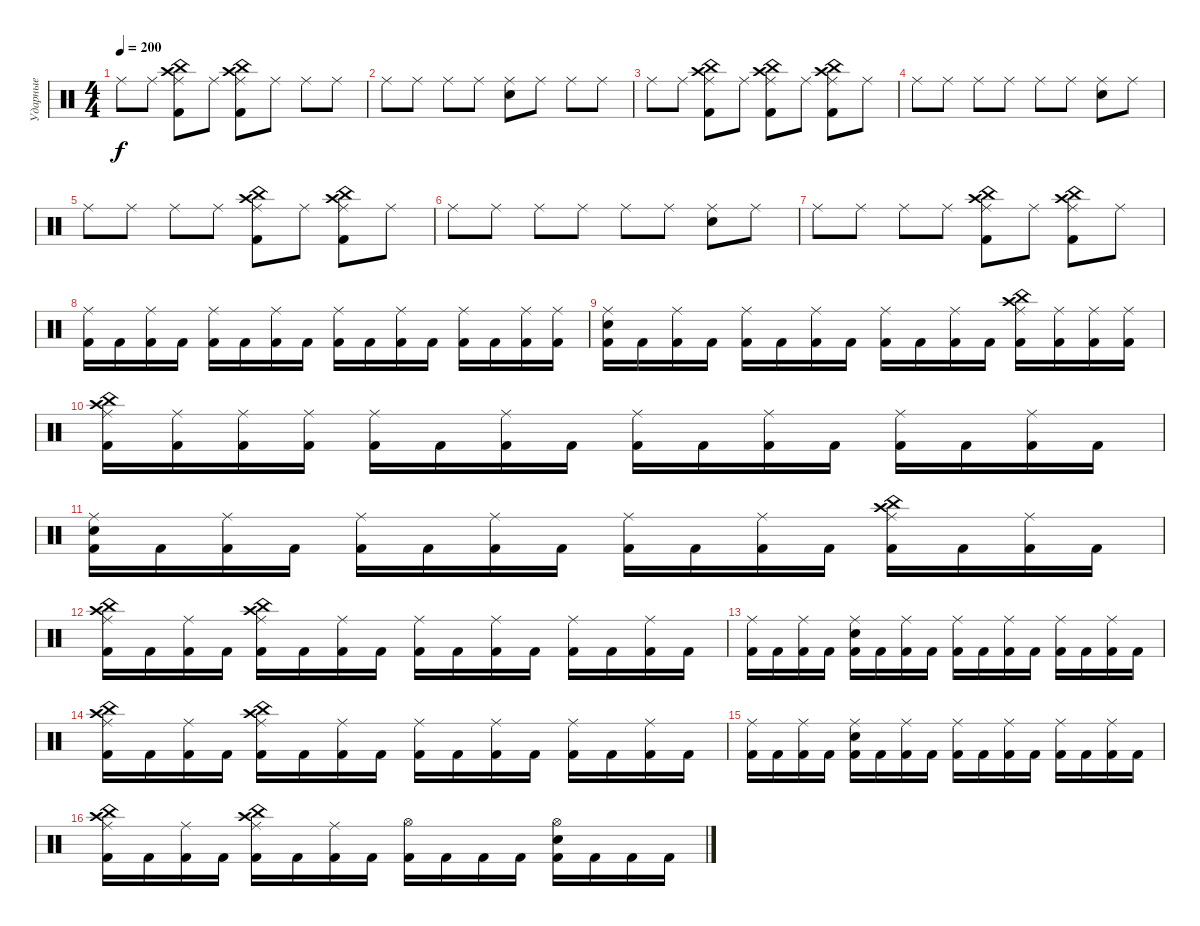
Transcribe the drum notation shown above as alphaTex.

\track ("Ударные" "Ударные") {instrument percussion}
\staff {score}
\articulation defaults
\ts (4 4)
\tempo 200
\clef neutral
\ks c "Ride (middle)".8{dy f} "Ride (middle)".8
("Ride (middle)" "Kick (hit) 2" "China (hit)" "Crash high (hit)").8 "Ride (middle)".8 ("Ride (middle)" "Kick (hit) 2" "Crash high (hit)" "China (hit)").8 "Ride (middle)".8 "Ride (middle)".8 "Ride (middle)".8 |
"Ride (middle)".8 "Ride (middle)".8 "Ride (middle)".8 "Ride (middle)".8 ("Ride (middle)" "Electric Snare (hit)").8 "Ride (middle)".8 "Ride (middle)".8 "Ride (middle)".8 |
"Ride (middle)".8 "Ride (middle)".8 ("Ride (middle)" "Kick (hit) 2" "Crash high (hit)" "China (hit)").8 "Ride (middle)".8 ("Ride (middle)" "Kick (hit) 2" "China (hit)" "Crash high (hit)").8 "Ride (middle)".8 ("Ride (middle)" "Kick (hit) 2" "Crash high (hit)" "China (hit)").8 "Ride (middle)".8 |
"Ride (middle)".8 "Ride (middle)".8 "Ride (middle)".8 "Ride (middle)".8 "Ride (middle)".8 "Ride (middle)".8 ("Ride (middle)" "Electric Snare (hit)").8 "Ride (middle)".8 |
"Ride (middle)".8 "Ride (middle)".8 "Ride (middle)".8 "Ride (middle)".8 ("Ride (middle)" "Kick (hit) 2" "Crash high (hit)" "China (hit)").8 "Ride (middle)".8 ("Ride (middle)" "China (hit)" "Crash high (hit)" "Kick (hit) 2").8 "Ride (middle)".8 |
"Ride (middle)".8 "Ride (middle)".8 "Ride (middle)".8 "Ride (middle)".8 "Ride (middle)".8 "Ride (middle)".8 ("Ride (middle)" "Electric Snare (hit)").8 "Ride (middle)".8 |
"Ride (middle)".8 "Ride (middle)".8 "Ride (middle)".8 "Ride (middle)".8 ("Ride (middle)" "Kick (hit) 2" "Crash high (hit)" "China (hit)").8 "Ride (middle)".8 ("Ride (middle)" "China (hit)" "Crash high (hit)" "Kick (hit) 2").8 "Ride (middle)".8 |
("Kick (hit) 2" "Ride (middle)").16 "Kick (hit) 2".16 ("Kick (hit) 2" "Ride (middle)").16 "Kick (hit) 2".16 ("Kick (hit) 2" "Ride (middle)").16 "Kick (hit) 2".16 ("Kick (hit) 2" "Ride (middle)").16 "Kick (hit) 2".16 ("Kick (hit) 2" "Ride (middle)").16 "Kick (hit) 2".16 ("Kick (hit) 2" "Ride (middle)").16 "Kick (hit) 2".16 ("Kick (hit) 2" "Ride (middle)").16 "Kick (hit) 2".16 ("Kick (hit) 2" "Ride (middle)").16 ("Ride (middle)" "Kick (hit) 2").16 |
("Kick (hit) 2" "Ride (middle)" "Electric Snare (hit)").16 "Kick (hit) 2".16 ("Kick (hit) 2" "Ride (middle)").16 "Kick (hit) 2".16 ("Kick (hit) 2" "Ride (middle)").16 "Kick (hit) 2".16 ("Kick (hit) 2" "Ride (middle)").16 "Kick (hit) 2".16 ("Kick (hit) 2" "Ride (middle)").16 "Kick (hit) 2".16 ("Kick (hit) 2" "Ride (middle)").16 "Kick (hit) 2".16 ("Kick (hit) 2" "Ride (middle)" "Crash high (hit)" "China (hit)").16 ("Kick (hit) 2" "Ride (middle)").16 ("Kick (hit) 2" "Ride (middle)").16 ("Kick (hit) 2" "Ride (middle)").16 |
("Kick (hit) 2" "Ride (middle)" "China (hit)" "Crash high (hit)").16 ("Kick (hit) 2" "Ride (middle)").16 ("Kick (hit) 2" "Ride (middle)").16 ("Kick (hit) 2" "Ride (middle)").16 ("Kick (hit) 2" "Ride (middle)").16 "Kick (hit) 2".16 ("Kick (hit) 2" "Ride (middle)").16 "Kick (hit) 2".16 ("Kick (hit) 2" "Ride (middle)").16 "Kick (hit) 2".16 ("Kick (hit) 2" "Ride (middle)").16 "Kick (hit) 2".16 ("Kick (hit) 2" "Ride (middle)").16 "Kick (hit) 2".16 ("Kick (hit) 2" "Ride (middle)").16 "Kick (hit) 2".16 |
("Kick (hit) 2" "Ride (middle)" "Electric Snare (hit)").16 "Kick (hit) 2".16 ("Kick (hit) 2" "Ride (middle)").16 "Kick (hit) 2".16 ("Kick (hit) 2" "Ride (middle)").16 "Kick (hit) 2".16 ("Kick (hit) 2" "Ride (middle)").16 "Kick (hit) 2".16 ("Kick (hit) 2" "Ride (middle)").16 "Kick (hit) 2".16 ("Kick (hit) 2" "Ride (middle)").16 "Kick (hit) 2".16 ("Kick (hit) 2" "Ride (middle)" "China (hit)" "Crash high (hit)").16 "Kick (hit) 2".16 ("Kick (hit) 2" "Ride (middle)").16 "Kick (hit) 2".16 |
("Kick (hit) 2" "Ride (middle)" "Crash high (hit)" "China (hit)").16 "Kick (hit) 2".16 ("Kick (hit) 2" "Ride (middle)").16 "Kick (hit) 2".16 ("Kick (hit) 2" "Ride (middle)" "China (hit)" "Crash high (hit)").16 "Kick (hit) 2".16 ("Kick (hit) 2" "Ride (middle)").16 "Kick (hit) 2".16 ("Kick (hit) 2" "Ride (middle)").16 "Kick (hit) 2".16 ("Kick (hit) 2" "Ride (middle)").16 "Kick (hit) 2".16 ("Kick (hit) 2" "Ride (middle)").16 "Kick (hit) 2".16 ("Kick (hit) 2" "Ride (middle)").16 "Kick (hit) 2".16 |
("Kick (hit) 2" "Ride (middle)").16 "Kick (hit) 2".16 ("Kick (hit) 2" "Ride (middle)").16 "Kick (hit) 2".16 ("Kick (hit) 2" "Ride (middle)" "Electric Snare (hit)").16 "Kick (hit) 2".16 ("Kick (hit) 2" "Ride (middle)").16 "Kick (hit) 2".16 ("Kick (hit) 2" "Ride (middle)").16 "Kick (hit) 2".16 ("Kick (hit) 2" "Ride (middle)").16 "Kick (hit) 2".16 ("Kick (hit) 2" "Ride (middle)").16 "Kick (hit) 2".16 ("Kick (hit) 2" "Ride (middle)").16 "Kick (hit) 2".16 |
("Kick (hit) 2" "Ride (middle)" "China (hit)" "Crash high (hit)").16 "Kick (hit) 2".16 ("Kick (hit) 2" "Ride (middle)").16 "Kick (hit) 2".16 ("Kick (hit) 2" "Ride (middle)" "Crash high (hit)" "China (hit)").16 "Kick (hit) 2".16 ("Kick (hit) 2" "Ride (middle)").16 "Kick (hit) 2".16 ("Kick (hit) 2" "Ride (middle)").16 "Kick (hit) 2".16 ("Kick (hit) 2" "Ride (middle)").16 "Kick (hit) 2".16 ("Kick (hit) 2" "Ride (middle)").16 "Kick (hit) 2".16 ("Kick (hit) 2" "Ride (middle)").16 "Kick (hit) 2".16 |
("Kick (hit) 2" "Ride (middle)").16 "Kick (hit) 2".16 ("Kick (hit) 2" "Ride (middle)").16 "Kick (hit) 2".16 ("Kick (hit) 2" "Ride (middle)" "Electric Snare (hit)").16 "Kick (hit) 2".16 ("Kick (hit) 2" "Ride (middle)").16 "Kick (hit) 2".16 ("Kick (hit) 2" "Ride (middle)").16 "Kick (hit) 2".16 ("Kick (hit) 2" "Ride (middle)").16 "Kick (hit) 2".16 ("Kick (hit) 2" "Ride (middle)").16 "Kick (hit) 2".16 ("Kick (hit) 2" "Ride (middle)").16 "Kick (hit) 2".16 |
("Kick (hit) 2" "Ride (middle)" "Crash high (hit)" "China (hit)").16 "Kick (hit) 2".16 ("Kick (hit) 2" "Ride (middle)").16 "Kick (hit) 2".16 ("Kick (hit) 2" "Ride (middle)" "China (hit)" "Crash high (hit)").16 "Kick (hit) 2".16 ("Kick (hit) 2" "Ride (middle)").16 "Kick (hit) 2".16 ("Kick (hit) 2" "Hi-Hat (open)").16 "Kick (hit) 2".16 "Kick (hit) 2".16 "Kick (hit) 2".16 ("Kick (hit) 2" "Hi-Hat (open)" "Electric Snare (hit)").16 "Kick (hit) 2".16 "Kick (hit) 2".16 "Kick (hit) 2".16
